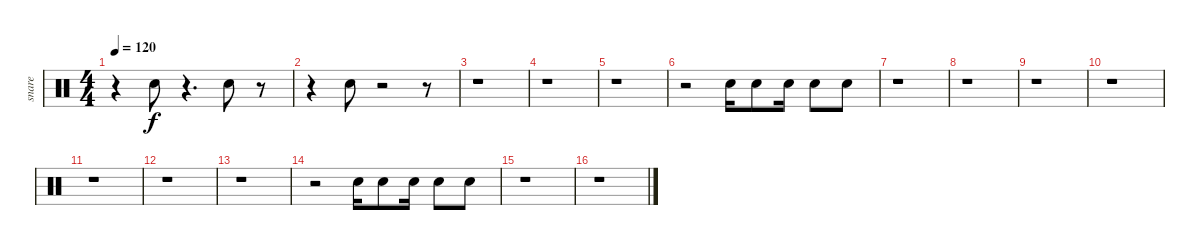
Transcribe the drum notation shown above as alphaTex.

\track ("snare" "snare") {instrument percussion}
\staff {score}
\articulation defaults
\ts (4 4)
\tempo 120
\clef neutral
\ks c
r.4{dy f} "Electric Snare (hit)".8 r.4{d} "Electric Snare (hit)".8 r.8 |
r.4 "Electric Snare (hit)".8 r.2 r.8 |
r.1 |
r.1 |
r.1 |
r.2 "Electric Snare (hit)".16 "Electric Snare (hit)".8 "Electric Snare (hit)".16 "Electric Snare (hit)".8 "Electric Snare (hit)".8 |
r.1 |
r.1 |
r.1 |
r.1 |
r.1 |
r.1 |
r.1 |
r.2 "Electric Snare (hit)".16 "Electric Snare (hit)".8 "Electric Snare (hit)".16 "Electric Snare (hit)".8 "Electric Snare (hit)".8 |
r.1 |
r.1
